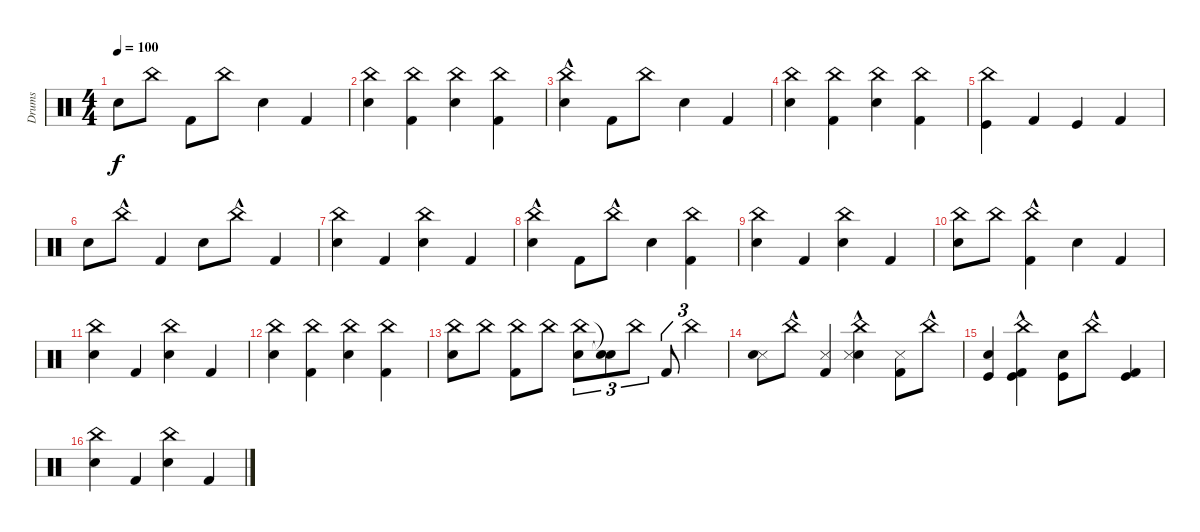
\track ("Drums" "Drums") {instrument percussion}
\staff {score}
\articulation defaults
\ts (4 4)
\tempo 100
\clef neutral
\ks c "Snare (hit) 2".8{dy f} "China (hit)".8 "Kick (hit) 2".8 "China (hit)".8 "Snare (hit) 2".4 "Kick (hit) 2".4
|
("China (hit)" "Snare (hit) 2").4 ("China (hit)" "Kick (hit) 2").4 ("China (hit)" "Snare (hit) 2").4 ("China (hit)" "Kick (hit) 2").4 |
("China (hit)"{hac} "Snare (hit) 2").4 "Kick (hit) 2".8 "China (hit)".8 "Snare (hit) 2".4 "Kick (hit) 2".4 |
("China (hit)" "Snare (hit) 2").4 ("China (hit)" "Kick (hit) 2").4 ("China (hit)" "Snare (hit) 2").4 ("China (hit)" "Kick (hit) 2").4 |
("Kick (hit)" "China (hit)").4 "Kick (hit) 2".4 "Kick (hit)".4 "Kick (hit) 2".4 |
"Snare (hit) 2".8 "China (hit)"{hac}.8 "Kick (hit) 2".4 "Snare (hit) 2".8 "China (hit)"{hac}.8 "Kick (hit) 2".4 |
("China (hit)" "Snare (hit) 2").4 "Kick (hit) 2".4 ("China (hit)" "Snare (hit) 2").4 "Kick (hit) 2".4 |
("China (hit)"{hac} "Snare (hit) 2").4 "Kick (hit) 2".8 "China (hit)"{hac}.8 "Snare (hit) 2".4 ("China (hit)" "Kick (hit) 2").4 |
("China (hit)" "Snare (hit) 2").4 "Kick (hit) 2".4 ("China (hit)" "Snare (hit) 2").4 "Kick (hit) 2".4 |
("China (hit)" "Snare (hit) 2").8 "China (hit)".8 ("China (hit)"{hac} "Kick (hit) 2").4 "Snare (hit) 2".4 "Kick (hit) 2".4 |
("China (hit)" "Snare (hit) 2").4 "Kick (hit) 2".4 ("China (hit)" "Snare (hit) 2").4 "Kick (hit) 2".4 |
("China (hit)" "Snare (hit) 2").4 ("China (hit)" "Kick (hit) 2").4 ("China (hit)" "Snare (hit) 2").4 ("China (hit)" "Kick (hit) 2").4 |
("China (hit)" "Snare (hit) 2").8 "China (hit)".8 ("China (hit)" "Kick (hit) 2").8 "China (hit)".8 ("China (hit)" "Snare (hit) 2").8{tu (3 2)} ("Snare (hit)"{t} "Snare (hit)"{t}).8{tu (3 2)} "China (hit)".8{tu (3 2)} "Kick (hit) 2".8{tu (3 2)} "China (hit)".4{tu (3 2)} |
("Metronome (hit)" "Snare (hit) 2").8 "China (hit)"{hac}.8 ("Kick (hit) 2" "Metronome (hit)").4 ("China (hit)"{hac} "Snare (hit) 2" "Metronome (hit)").4 ("Kick (hit) 2" "Metronome (hit)").8 "China (hit)"{hac}.8 |
("Snare (hit) 2" "Kick (hit)").4 ("China (hit)"{hac} "Kick (hit) 2" "Kick (hit)").4 ("Snare (hit) 2" "Kick (hit)").8 "China (hit)"{hac}.8 ("Kick (hit) 2" "Kick (hit)").4 |
("China (hit)" "Snare (hit) 2").4 "Kick (hit) 2".4 ("China (hit)" "Snare (hit) 2").4 "Kick (hit) 2".4
